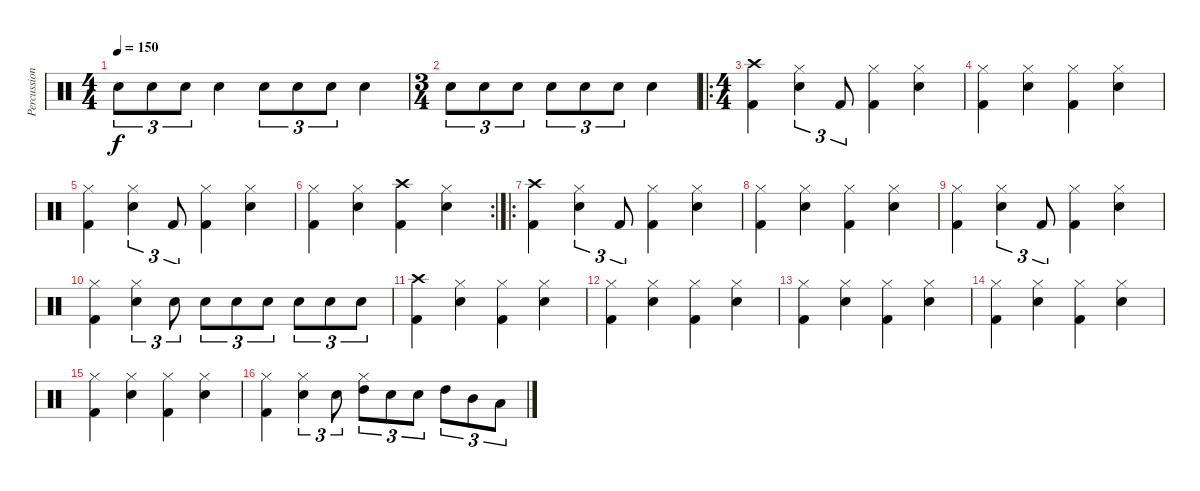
\track ("Percussion" "Percussion") {instrument percussion}
\staff {score}
\articulation defaults
\ts (4 4)
\tempo 150
\clef neutral
\ks c "Electric Snare (hit)".8{tu (3 2) dy f} "Electric Snare (hit)".8{tu (3 2)} "Electric Snare (hit)".8{tu (3 2)} "Electric Snare (hit)".4 "Electric Snare (hit)".8{tu (3 2)} "Electric Snare (hit)".8{tu (3 2)} "Electric Snare (hit)".8{tu (3 2)} "Electric Snare (hit)".4
|
\ts (3 4)
"Electric Snare (hit)".8{tu (3 2)} "Electric Snare (hit)".8{tu (3 2)} "Electric Snare (hit)".8{tu (3 2)} "Electric Snare (hit)".8{tu (3 2)} "Electric Snare (hit)".8{tu (3 2)} "Electric Snare (hit)".8{tu (3 2)} "Electric Snare (hit)".4 |
\ro
\ts (4 4)
("Crash high (hit)" "Kick (hit) 2").4 ("Hi-Hat (closed)" "Electric Snare (hit)").4{tu (3 2)} "Kick (hit) 2".8{tu (3 2)} ("Hi-Hat (closed)" "Kick (hit) 2").4 ("Hi-Hat (closed)" "Electric Snare (hit)").4 |
("Hi-Hat (closed)" "Kick (hit) 2").4 ("Hi-Hat (closed)" "Electric Snare (hit)").4 ("Hi-Hat (closed)" "Kick (hit) 2").4 ("Hi-Hat (closed)" "Electric Snare (hit)").4 |
("Hi-Hat (closed)" "Kick (hit) 2").4 ("Hi-Hat (closed)" "Electric Snare (hit)").4{tu (3 2)} "Kick (hit) 2".8{tu (3 2)} ("Hi-Hat (closed)" "Kick (hit) 2").4 ("Hi-Hat (closed)" "Electric Snare (hit)").4 |
\rc 2
("Hi-Hat (closed)" "Kick (hit) 2").4 ("Hi-Hat (closed)" "Electric Snare (hit)").4 ("Crash high (hit)" "Kick (hit) 2").4 ("Hi-Hat (closed)" "Electric Snare (hit)").4 |
\ro
("Crash high (hit)" "Kick (hit) 2").4 ("Hi-Hat (closed)" "Electric Snare (hit)").4{tu (3 2)} "Kick (hit) 2".8{tu (3 2)} ("Hi-Hat (closed)" "Kick (hit) 2").4 ("Hi-Hat (closed)" "Electric Snare (hit)").4 |
("Hi-Hat (closed)" "Kick (hit) 2").4 ("Hi-Hat (closed)" "Electric Snare (hit)").4 ("Hi-Hat (closed)" "Kick (hit) 2").4 ("Hi-Hat (closed)" "Electric Snare (hit)").4 |
("Hi-Hat (closed)" "Kick (hit) 2").4 ("Hi-Hat (closed)" "Electric Snare (hit)").4{tu (3 2)} "Kick (hit) 2".8{tu (3 2)} ("Hi-Hat (closed)" "Kick (hit) 2").4 ("Hi-Hat (closed)" "Electric Snare (hit)").4 |
("Hi-Hat (closed)" "Kick (hit) 2").4 ("Hi-Hat (closed)" "Electric Snare (hit)").4{tu (3 2)} "Electric Snare (hit)".8{tu (3 2)} "Electric Snare (hit)".8{tu (3 2)} "Electric Snare (hit)".8{tu (3 2)} "Electric Snare (hit)".8{tu (3 2)} "Electric Snare (hit)".8{tu (3 2)} "Electric Snare (hit)".8{tu (3 2)} "Electric Snare (hit)".8{tu (3 2)} |
("Crash high (hit)" "Kick (hit) 2").4 ("Hi-Hat (closed)" "Electric Snare (hit)").4 ("Hi-Hat (closed)" "Kick (hit) 2").4 ("Hi-Hat (closed)" "Electric Snare (hit)").4 |
("Hi-Hat (closed)" "Kick (hit) 2").4 ("Hi-Hat (closed)" "Electric Snare (hit)").4 ("Hi-Hat (closed)" "Kick (hit) 2").4 ("Hi-Hat (closed)" "Electric Snare (hit)").4 |
("Hi-Hat (closed)" "Kick (hit) 2").4 ("Hi-Hat (closed)" "Electric Snare (hit)").4 ("Hi-Hat (closed)" "Kick (hit) 2").4 ("Hi-Hat (closed)" "Electric Snare (hit)").4 |
("Hi-Hat (closed)" "Kick (hit) 2").4 ("Hi-Hat (closed)" "Electric Snare (hit)").4 ("Hi-Hat (closed)" "Kick (hit) 2").4 ("Hi-Hat (closed)" "Electric Snare (hit)").4 |
("Hi-Hat (closed)" "Kick (hit) 2").4 ("Hi-Hat (closed)" "Electric Snare (hit)").4 ("Hi-Hat (closed)" "Kick (hit) 2").4 ("Hi-Hat (closed)" "Electric Snare (hit)").4 |
("Hi-Hat (closed)" "Kick (hit) 2").4 ("Hi-Hat (closed)" "Electric Snare (hit)").4{tu (3 2)} "Electric Snare (hit)".8{tu (3 2)} ("Hi-Hat (closed)" "High Tom (hit)").8{tu (3 2)} "Electric Snare (hit)".8{tu (3 2)} "Electric Snare (hit)".8{tu (3 2)} "High Tom (hit)".8{tu (3 2)} "Mid Tom (hit)".8{tu (3 2)} "Low Tom (hit)".8{tu (3 2)}
